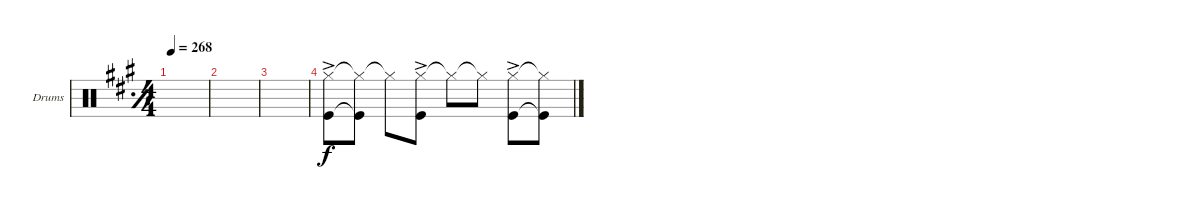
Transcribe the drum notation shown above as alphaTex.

\defaultSystemsLayout 4
\bracketExtendMode groupsimilarinstruments
\firstSystemTrackNameOrientation horizontal
\otherSystemsTrackNameOrientation horizontal
\track ("Stefan Kaufmann" "Drums") {instrument percussion}
\staff {score}
\articulation defaults
\ts (4 4)
\tempo 268
\clef neutral
\simile simple
\ks a
|
|
|
("Hi-Hat (closed)"{ac} "Kick (hit)").8 ("Hi-Hat (closed)"{t} "Kick (hit)"{t}).8 "Hi-Hat (closed)"{t}.8 ("Hi-Hat (closed)"{ac} "Kick (hit)").8 "Hi-Hat (closed)"{t}.8 "Hi-Hat (closed)"{t}.8 ("Hi-Hat (closed)"{ac} "Kick (hit)").8 ("Hi-Hat (closed)"{t} "Kick (hit)"{t}).8
